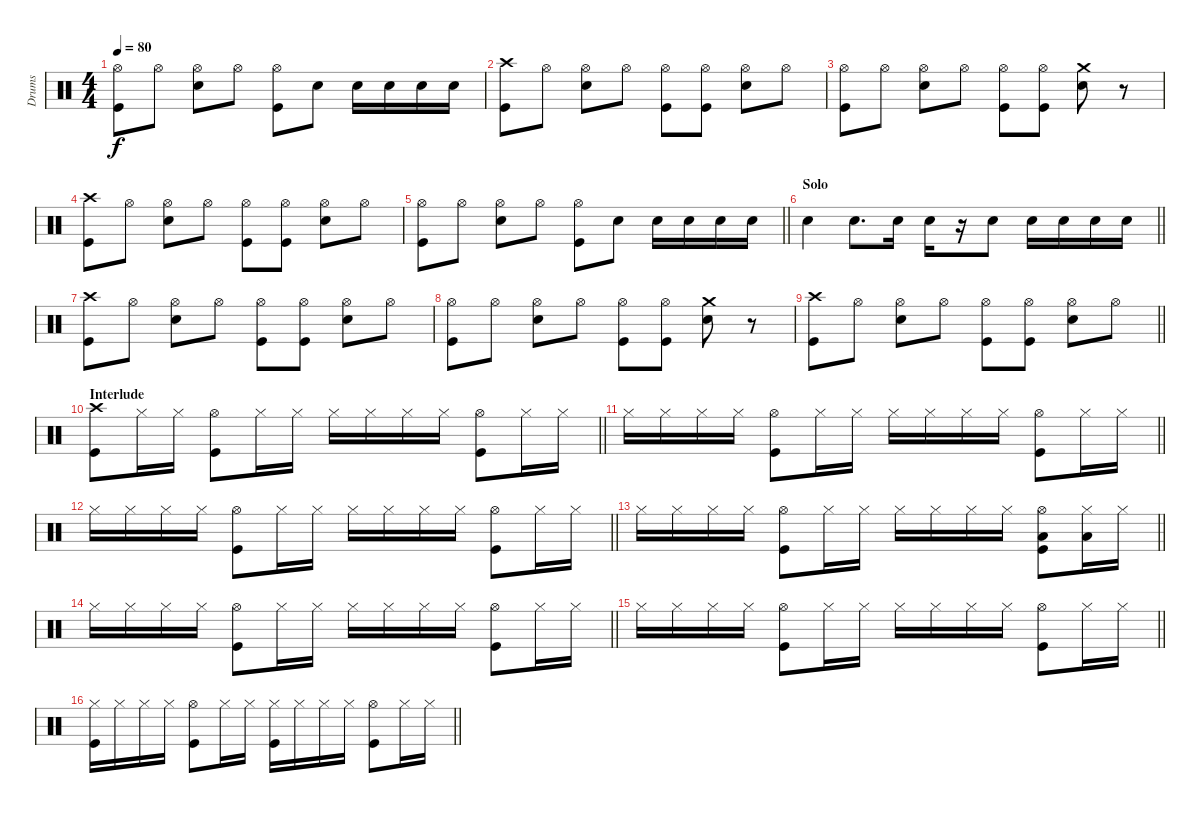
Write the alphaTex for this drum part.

\track ("Drums" "Drums") {instrument percussion}
\staff {score}
\articulation defaults
\ts (4 4)
\tempo 80
\clef neutral
\ks c
("Kick (hit)" "Hi-Hat (open)").8{dy f} "Hi-Hat (open)".8 ("Hi-Hat (open)" "Snare (hit) 2").8 "Hi-Hat (open)".8 ("Hi-Hat (open)" "Kick (hit)").8 "Snare (hit) 2".8 "Snare (hit) 2".16 "Snare (hit) 2".16 "Snare (hit) 2".16 "Snare (hit) 2".16 |
("Crash high (hit)" "Kick (hit)").8 "Hi-Hat (open)".8 ("Hi-Hat (open)" "Snare (hit) 2").8 "Hi-Hat (open)".8 ("Hi-Hat (open)" "Kick (hit)").8 ("Hi-Hat (open)" "Kick (hit)").8 ("Hi-Hat (open)" "Snare (hit) 2").8 "Hi-Hat (open)".8 |
("Kick (hit)" "Hi-Hat (open)").8 "Hi-Hat (open)".8 ("Hi-Hat (open)" "Snare (hit) 2").8 "Hi-Hat (open)".8 ("Hi-Hat (open)" "Kick (hit)").8 ("Hi-Hat (open)" "Kick (hit)").8 ("Snare (hit) 2" "Crash medium (hit)").8 r.8 |
("Crash high (hit)" "Kick (hit)").8 "Hi-Hat (open)".8 ("Hi-Hat (open)" "Snare (hit) 2").8 "Hi-Hat (open)".8 ("Hi-Hat (open)" "Kick (hit)").8 ("Hi-Hat (open)" "Kick (hit)").8 ("Hi-Hat (open)" "Snare (hit) 2").8 "Hi-Hat (open)".8 |
\barLineRight lightlight
("Kick (hit)" "Hi-Hat (open)").8 "Hi-Hat (open)".8 ("Hi-Hat (open)" "Snare (hit) 2").8 "Hi-Hat (open)".8 ("Hi-Hat (open)" "Kick (hit)").8 "Snare (hit) 2".8 "Snare (hit) 2".16 "Snare (hit) 2".16 "Snare (hit) 2".16 "Snare (hit) 2".16 |
\section ("" "Solo")
\barLineRight lightlight "Snare (hit) 2".4 "Snare (hit) 2".8{d} "Snare (hit) 2".16 "Snare (hit) 2".16
r.16 "Snare (hit) 2".8 "Snare (hit) 2".16 "Snare (hit) 2".16 "Snare (hit) 2".16 "Snare (hit) 2".16 |
("Crash high (hit)" "Kick (hit)").8 "Hi-Hat (open)".8 ("Hi-Hat (open)" "Snare (hit) 2").8 "Hi-Hat (open)".8 ("Hi-Hat (open)" "Kick (hit)").8 ("Hi-Hat (open)" "Kick (hit)").8 ("Hi-Hat (open)" "Snare (hit) 2").8 "Hi-Hat (open)".8 |
("Kick (hit)" "Hi-Hat (open)").8 "Hi-Hat (open)".8 ("Hi-Hat (open)" "Snare (hit) 2").8 "Hi-Hat (open)".8 ("Hi-Hat (open)" "Kick (hit)").8 ("Hi-Hat (open)" "Kick (hit)").8 ("Snare (hit) 2" "Crash medium (hit)").8 r.8 |
\barLineRight lightlight
("Crash high (hit)" "Kick (hit)").8 "Hi-Hat (open)".8 ("Hi-Hat (open)" "Snare (hit) 2").8 "Hi-Hat (open)".8 ("Hi-Hat (open)" "Kick (hit)").8 ("Hi-Hat (open)" "Kick (hit)").8 ("Hi-Hat (open)" "Snare (hit) 2").8 "Hi-Hat (open)".8 |
\section ("" "Interlude")
\barLineRight lightlight
("Kick (hit)" "Crash high (hit)").8 "Hi-Hat (closed)".16 "Hi-Hat (closed)".16 ("Kick (hit)" "Hi-Hat (open)").8 "Hi-Hat (closed)".16 "Hi-Hat (closed)".16 "Hi-Hat (closed)".16 "Hi-Hat (closed)".16 "Hi-Hat (closed)".16 "Hi-Hat (closed)".16 ("Kick (hit)" "Hi-Hat (open)").8 "Hi-Hat (closed)".16 "Hi-Hat (closed)".16 |
\barLineRight lightlight "Hi-Hat (closed)".16 "Hi-Hat (closed)".16 "Hi-Hat (closed)".16 "Hi-Hat (closed)".16
("Kick (hit)" "Hi-Hat (open)").8 "Hi-Hat (closed)".16 "Hi-Hat (closed)".16 "Hi-Hat (closed)".16 "Hi-Hat (closed)".16 "Hi-Hat (closed)".16 "Hi-Hat (closed)".16 ("Kick (hit)" "Hi-Hat (open)").8 "Hi-Hat (closed)".16 "Hi-Hat (closed)".16 |
\barLineRight lightlight "Hi-Hat (closed)".16 "Hi-Hat (closed)".16 "Hi-Hat (closed)".16 "Hi-Hat (closed)".16
("Kick (hit)" "Hi-Hat (open)").8 "Hi-Hat (closed)".16 "Hi-Hat (closed)".16 "Hi-Hat (closed)".16 "Hi-Hat (closed)".16 "Hi-Hat (closed)".16 "Hi-Hat (closed)".16 ("Kick (hit)" "Hi-Hat (open)").8 "Hi-Hat (closed)".16 "Hi-Hat (closed)".16 |
\barLineRight lightlight "Hi-Hat (closed)".16 "Hi-Hat (closed)".16 "Hi-Hat (closed)".16 "Hi-Hat (closed)".16
("Kick (hit)" "Hi-Hat (open)").8 "Hi-Hat (closed)".16 "Hi-Hat (closed)".16 "Hi-Hat (closed)".16 "Hi-Hat (closed)".16 "Hi-Hat (closed)".16 "Hi-Hat (closed)".16 ("Kick (hit)" "Hi-Hat (open)" "Low Floor Tom (hit)").8 ("Hi-Hat (closed)" "Low Floor Tom (hit)").16 "Hi-Hat (closed)".16 |
\barLineRight lightlight "Hi-Hat (closed)".16 "Hi-Hat (closed)".16 "Hi-Hat (closed)".16 "Hi-Hat (closed)".16
("Kick (hit)" "Hi-Hat (open)").8 "Hi-Hat (closed)".16 "Hi-Hat (closed)".16 "Hi-Hat (closed)".16 "Hi-Hat (closed)".16 "Hi-Hat (closed)".16 "Hi-Hat (closed)".16 ("Kick (hit)" "Hi-Hat (open)").8 "Hi-Hat (closed)".16 "Hi-Hat (closed)".16 |
\barLineRight lightlight "Hi-Hat (closed)".16 "Hi-Hat (closed)".16 "Hi-Hat (closed)".16 "Hi-Hat (closed)".16
("Kick (hit)" "Hi-Hat (open)").8 "Hi-Hat (closed)".16 "Hi-Hat (closed)".16 "Hi-Hat (closed)".16 "Hi-Hat (closed)".16 "Hi-Hat (closed)".16 "Hi-Hat (closed)".16 ("Kick (hit)" "Hi-Hat (open)").8 "Hi-Hat (closed)".16 "Hi-Hat (closed)".16 |
\barLineRight lightlight
("Hi-Hat (closed)" "Kick (hit)").16 "Hi-Hat (closed)".16 "Hi-Hat (closed)".16 "Hi-Hat (closed)".16 ("Kick (hit)" "Hi-Hat (open)").8 "Hi-Hat (closed)".16 "Hi-Hat (closed)".16 ("Hi-Hat (closed)" "Kick (hit)").16 "Hi-Hat (closed)".16 "Hi-Hat (closed)".16 "Hi-Hat (closed)".16 ("Kick (hit)" "Hi-Hat (open)").8 "Hi-Hat (closed)".16 "Hi-Hat (closed)".16
